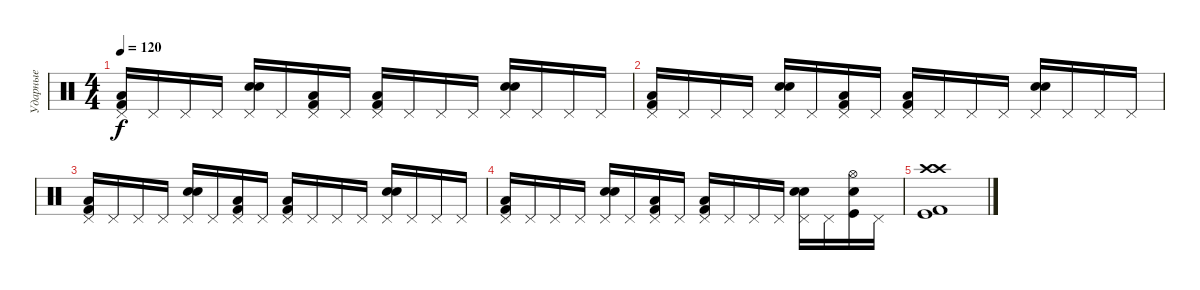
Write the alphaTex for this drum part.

\track ("Ударные" "Ударные") {instrument percussion}
\staff {score}
\articulation defaults
\ts (4 4)
\tempo 120
\clef neutral
\ks c
("Kick (hit) 2" "Low Floor Tom (hit)" "Pedal Hi-Hat (hit)").16{dy f} "Pedal Hi-Hat (hit)".16 "Pedal Hi-Hat (hit)".16 "Pedal Hi-Hat (hit)".16 ("Electric Snare (hit)" "Electric Snare (hit)" "Pedal Hi-Hat (hit)").16 "Pedal Hi-Hat (hit)".16 ("Kick (hit) 2" "Low Floor Tom (hit)" "Pedal Hi-Hat (hit)").16 "Pedal Hi-Hat (hit)".16 ("Kick (hit) 2" "Low Floor Tom (hit)" "Pedal Hi-Hat (hit)").16 "Pedal Hi-Hat (hit)".16 "Pedal Hi-Hat (hit)".16 "Pedal Hi-Hat (hit)".16 ("Electric Snare (hit)" "Electric Snare (hit)" "Pedal Hi-Hat (hit)").16 "Pedal Hi-Hat (hit)".16 "Pedal Hi-Hat (hit)".16 "Pedal Hi-Hat (hit)".16 |
("Kick (hit) 2" "Low Floor Tom (hit)" "Pedal Hi-Hat (hit)").16 "Pedal Hi-Hat (hit)".16 "Pedal Hi-Hat (hit)".16 "Pedal Hi-Hat (hit)".16 ("Electric Snare (hit)" "Electric Snare (hit)" "Pedal Hi-Hat (hit)").16 "Pedal Hi-Hat (hit)".16 ("Kick (hit) 2" "Low Floor Tom (hit)" "Pedal Hi-Hat (hit)").16 "Pedal Hi-Hat (hit)".16 ("Kick (hit) 2" "Low Floor Tom (hit)" "Pedal Hi-Hat (hit)").16 "Pedal Hi-Hat (hit)".16 "Pedal Hi-Hat (hit)".16 "Pedal Hi-Hat (hit)".16 ("Electric Snare (hit)" "Electric Snare (hit)" "Pedal Hi-Hat (hit)").16 "Pedal Hi-Hat (hit)".16 "Pedal Hi-Hat (hit)".16 "Pedal Hi-Hat (hit)".16 |
("Kick (hit) 2" "Low Floor Tom (hit)" "Pedal Hi-Hat (hit)").16 "Pedal Hi-Hat (hit)".16 "Pedal Hi-Hat (hit)".16 "Pedal Hi-Hat (hit)".16 ("Electric Snare (hit)" "Electric Snare (hit)" "Pedal Hi-Hat (hit)").16 "Pedal Hi-Hat (hit)".16 ("Kick (hit) 2" "Low Floor Tom (hit)" "Pedal Hi-Hat (hit)").16 "Pedal Hi-Hat (hit)".16 ("Kick (hit) 2" "Low Floor Tom (hit)" "Pedal Hi-Hat (hit)").16 "Pedal Hi-Hat (hit)".16 "Pedal Hi-Hat (hit)".16 "Pedal Hi-Hat (hit)".16 ("Electric Snare (hit)" "Electric Snare (hit)" "Pedal Hi-Hat (hit)").16 "Pedal Hi-Hat (hit)".16 "Pedal Hi-Hat (hit)".16 "Pedal Hi-Hat (hit)".16 |
("Kick (hit) 2" "Low Floor Tom (hit)" "Pedal Hi-Hat (hit)").16 "Pedal Hi-Hat (hit)".16 "Pedal Hi-Hat (hit)".16 "Pedal Hi-Hat (hit)".16 ("Electric Snare (hit)" "Electric Snare (hit)" "Pedal Hi-Hat (hit)").16 "Pedal Hi-Hat (hit)".16 ("Kick (hit) 2" "Low Floor Tom (hit)" "Pedal Hi-Hat (hit)").16 "Pedal Hi-Hat (hit)".16 ("Kick (hit) 2" "Low Floor Tom (hit)" "Pedal Hi-Hat (hit)").16 "Pedal Hi-Hat (hit)".16 "Pedal Hi-Hat (hit)".16 "Pedal Hi-Hat (hit)".16 ("Electric Snare (hit)" "Electric Snare (hit)" "Pedal Hi-Hat (hit)").16 "Pedal Hi-Hat (hit)".16 ("Snare (hit) 2" "Kick (hit)" "Hi-Hat (open)").16 "Pedal Hi-Hat (hit)".16 |
("Crash high (hit)" "Crash high (hit)" "Kick (hit) 2" "Kick (hit)").1
